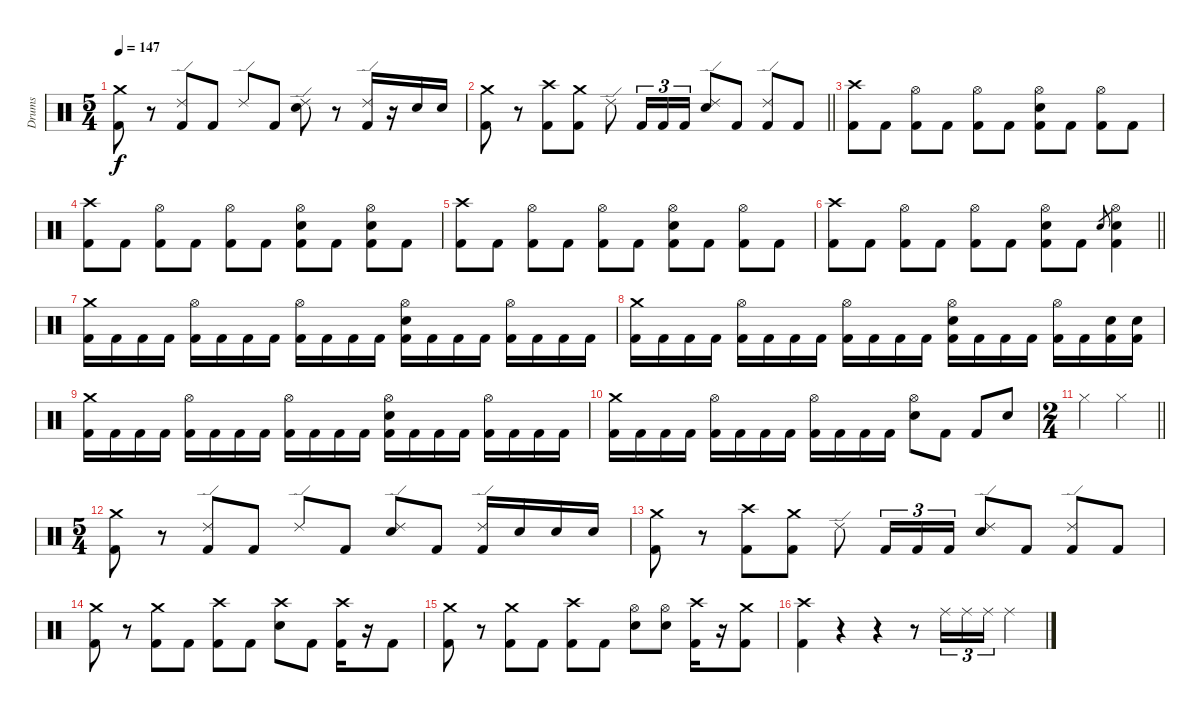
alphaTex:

\track ("Drums" "Drums") {instrument percussion}
\staff {score}
\articulation defaults
\ts (5 4)
\tempo 147
\clef neutral
\ks c
("Crash medium (hit)" "Kick (hit) 2").8{dy f} r.8 ("Ride (edge) 2" "Kick (hit) 2").8 "Kick (hit) 2".8 "Ride (edge) 2".8 "Kick (hit) 2".8 ("Ride (edge) 2" "Electric Snare (hit)").8 r.8 ("Ride (edge) 2" "Kick (hit) 2").16 r.16 "Electric Snare (hit)".16 "Electric Snare (hit)".16 |
\barLineRight lightlight
("Crash medium (hit)" "Kick (hit) 2").8 r.8 ("Crash high (hit)" "Kick (hit) 2").8 ("Crash medium (hit)" "Kick (hit) 2").8 "Ride (edge) 2".8 "Kick (hit) 2".16{tu (3 2)} "Kick (hit) 2".16{tu (3 2)} "Kick (hit) 2".16{tu (3 2)} ("Ride (edge) 2" "Electric Snare (hit)").8 "Kick (hit) 2".8 ("Ride (edge) 2" "Kick (hit) 2").8 "Kick (hit) 2".8 |
\section ("" "")
("Crash high (hit)" "Kick (hit) 2").8 "Kick (hit) 2".8 ("Hi-Hat (open)" "Kick (hit) 2").8 "Kick (hit) 2".8 ("Hi-Hat (open)" "Kick (hit) 2").8 "Kick (hit) 2".8 ("Hi-Hat (open)" "Electric Snare (hit)" "Kick (hit) 2").8 "Kick (hit) 2".8 ("Hi-Hat (open)" "Kick (hit) 2").8 "Kick (hit) 2".8 |
("Crash high (hit)" "Kick (hit) 2").8 "Kick (hit) 2".8 ("Hi-Hat (open)" "Kick (hit) 2").8 "Kick (hit) 2".8 ("Hi-Hat (open)" "Kick (hit) 2").8 "Kick (hit) 2".8 ("Hi-Hat (open)" "Electric Snare (hit)" "Kick (hit) 2").8 "Kick (hit) 2".8 ("Hi-Hat (open)" "Electric Snare (hit)" "Kick (hit) 2").8 "Kick (hit) 2".8 |
("Crash high (hit)" "Kick (hit) 2").8 "Kick (hit) 2".8 ("Hi-Hat (open)" "Kick (hit) 2").8 "Kick (hit) 2".8 ("Hi-Hat (open)" "Kick (hit) 2").8 "Kick (hit) 2".8 ("Hi-Hat (open)" "Electric Snare (hit)" "Kick (hit) 2").8 "Kick (hit) 2".8 ("Hi-Hat (open)" "Kick (hit) 2").8 "Kick (hit) 2".8 |
\barLineRight lightlight
("Crash high (hit)" "Kick (hit) 2").8 "Kick (hit) 2".8 ("Hi-Hat (open)" "Kick (hit) 2").8 "Kick (hit) 2".8 ("Hi-Hat (open)" "Kick (hit) 2").8 "Kick (hit) 2".8 ("Hi-Hat (open)" "Electric Snare (hit)" "Kick (hit) 2").8 "Kick (hit) 2".8 "Electric Snare (hit)".8{gr} ("Hi-Hat (open)" "Electric Snare (hit)" "Kick (hit) 2").4 |
\section ("" "")
("Crash medium (hit)" "Kick (hit) 2").16 "Kick (hit) 2".16 "Kick (hit) 2".16 "Kick (hit) 2".16 ("Hi-Hat (open)" "Kick (hit) 2").16 "Kick (hit) 2".16 "Kick (hit) 2".16 "Kick (hit) 2".16 ("Hi-Hat (open)" "Kick (hit) 2").16 "Kick (hit) 2".16 "Kick (hit) 2".16 "Kick (hit) 2".16 ("Hi-Hat (open)" "Electric Snare (hit)" "Kick (hit) 2").16 "Kick (hit) 2".16 "Kick (hit) 2".16 "Kick (hit) 2".16 ("Hi-Hat (open)" "Kick (hit) 2").16 "Kick (hit) 2".16 "Kick (hit) 2".16 "Kick (hit) 2".16 |
("Crash medium (hit)" "Kick (hit) 2").16 "Kick (hit) 2".16 "Kick (hit) 2".16 "Kick (hit) 2".16 ("Hi-Hat (open)" "Kick (hit) 2").16 "Kick (hit) 2".16 "Kick (hit) 2".16 "Kick (hit) 2".16 ("Hi-Hat (open)" "Kick (hit) 2").16 "Kick (hit) 2".16 "Kick (hit) 2".16 "Kick (hit) 2".16 ("Hi-Hat (open)" "Electric Snare (hit)" "Kick (hit) 2").16 "Kick (hit) 2".16 "Kick (hit) 2".16 "Kick (hit) 2".16 ("Hi-Hat (open)" "Kick (hit) 2").16 "Kick (hit) 2".16 ("Electric Snare (hit)" "Kick (hit) 2").16 ("Electric Snare (hit)" "Kick (hit) 2").16 |
("Crash medium (hit)" "Kick (hit) 2").16 "Kick (hit) 2".16 "Kick (hit) 2".16 "Kick (hit) 2".16 ("Hi-Hat (open)" "Kick (hit) 2").16 "Kick (hit) 2".16 "Kick (hit) 2".16 "Kick (hit) 2".16 ("Hi-Hat (open)" "Kick (hit) 2").16 "Kick (hit) 2".16 "Kick (hit) 2".16 "Kick (hit) 2".16 ("Hi-Hat (open)" "Electric Snare (hit)" "Kick (hit) 2").16 "Kick (hit) 2".16 "Kick (hit) 2".16 "Kick (hit) 2".16 ("Hi-Hat (open)" "Kick (hit) 2").16 "Kick (hit) 2".16 "Kick (hit) 2".16 "Kick (hit) 2".16 |
("Crash medium (hit)" "Kick (hit) 2").16 "Kick (hit) 2".16 "Kick (hit) 2".16 "Kick (hit) 2".16 ("Hi-Hat (open)" "Kick (hit) 2").16 "Kick (hit) 2".16 "Kick (hit) 2".16 "Kick (hit) 2".16 ("Hi-Hat (open)" "Kick (hit) 2").16 "Kick (hit) 2".16 "Kick (hit) 2".16 "Kick (hit) 2".16 ("Hi-Hat (open)" "Electric Snare (hit)").8 "Kick (hit) 2".8 "Kick (hit) 2".8 "Electric Snare (hit)".8 |
\ts (2 4)
\barLineRight lightlight "Hi-Hat (closed)".4 "Hi-Hat (closed)".4
|
\ts (5 4)
\section ("" "")
("Crash medium (hit)" "Kick (hit) 2").8 r.8 ("Ride (edge) 2" "Kick (hit) 2").8 "Kick (hit) 2".8 "Ride (edge) 2".8 "Kick (hit) 2".8 ("Ride (edge) 2" "Electric Snare (hit)").8 "Kick (hit) 2".8 ("Ride (edge) 2" "Kick (hit) 2").16 "Electric Snare (hit)".16 "Electric Snare (hit)".16 "Electric Snare (hit)".16 |
("Crash medium (hit)" "Kick (hit) 2").8 r.8 ("Crash high (hit)" "Kick (hit) 2").8 ("Crash medium (hit)" "Kick (hit) 2").8 "Ride (edge) 2".8 "Kick (hit) 2".16{tu (3 2)} "Kick (hit) 2".16{tu (3 2)} "Kick (hit) 2".16{tu (3 2)} ("Ride (edge) 2" "Electric Snare (hit)").8 "Kick (hit) 2".8 ("Ride (edge) 2" "Kick (hit) 2").8 "Kick (hit) 2".8 |
("Crash medium (hit)" "Kick (hit) 2").8 r.8 ("Crash medium (hit)" "Kick (hit) 2").8 "Kick (hit) 2".8 ("Crash high (hit)" "Kick (hit) 2").8 "Kick (hit) 2".8 ("Crash high (hit)" "Electric Snare (hit)").8 "Kick (hit) 2".8 ("Crash high (hit)" "Kick (hit) 2").16 r.16 "Kick (hit) 2".8 |
("Crash medium (hit)" "Kick (hit) 2").8 r.8 ("Crash medium (hit)" "Kick (hit) 2").8 "Kick (hit) 2".8 ("Crash high (hit)" "Kick (hit) 2").8 "Kick (hit) 2".8 ("Hi-Hat (open)" "Electric Snare (hit)").8 ("Hi-Hat (open)" "Electric Snare (hit)").8 ("Crash high (hit)" "Kick (hit) 2").16 r.16 ("Crash medium (hit)" "Kick (hit) 2").8 |
("Crash high (hit)" "Kick (hit) 2").4 r.4 r.4 r.8 "Ride (middle)".16{tu (3 2)} "Ride (middle)".16{tu (3 2)} "Ride (middle)".16{tu (3 2)} "Ride (middle)".4
